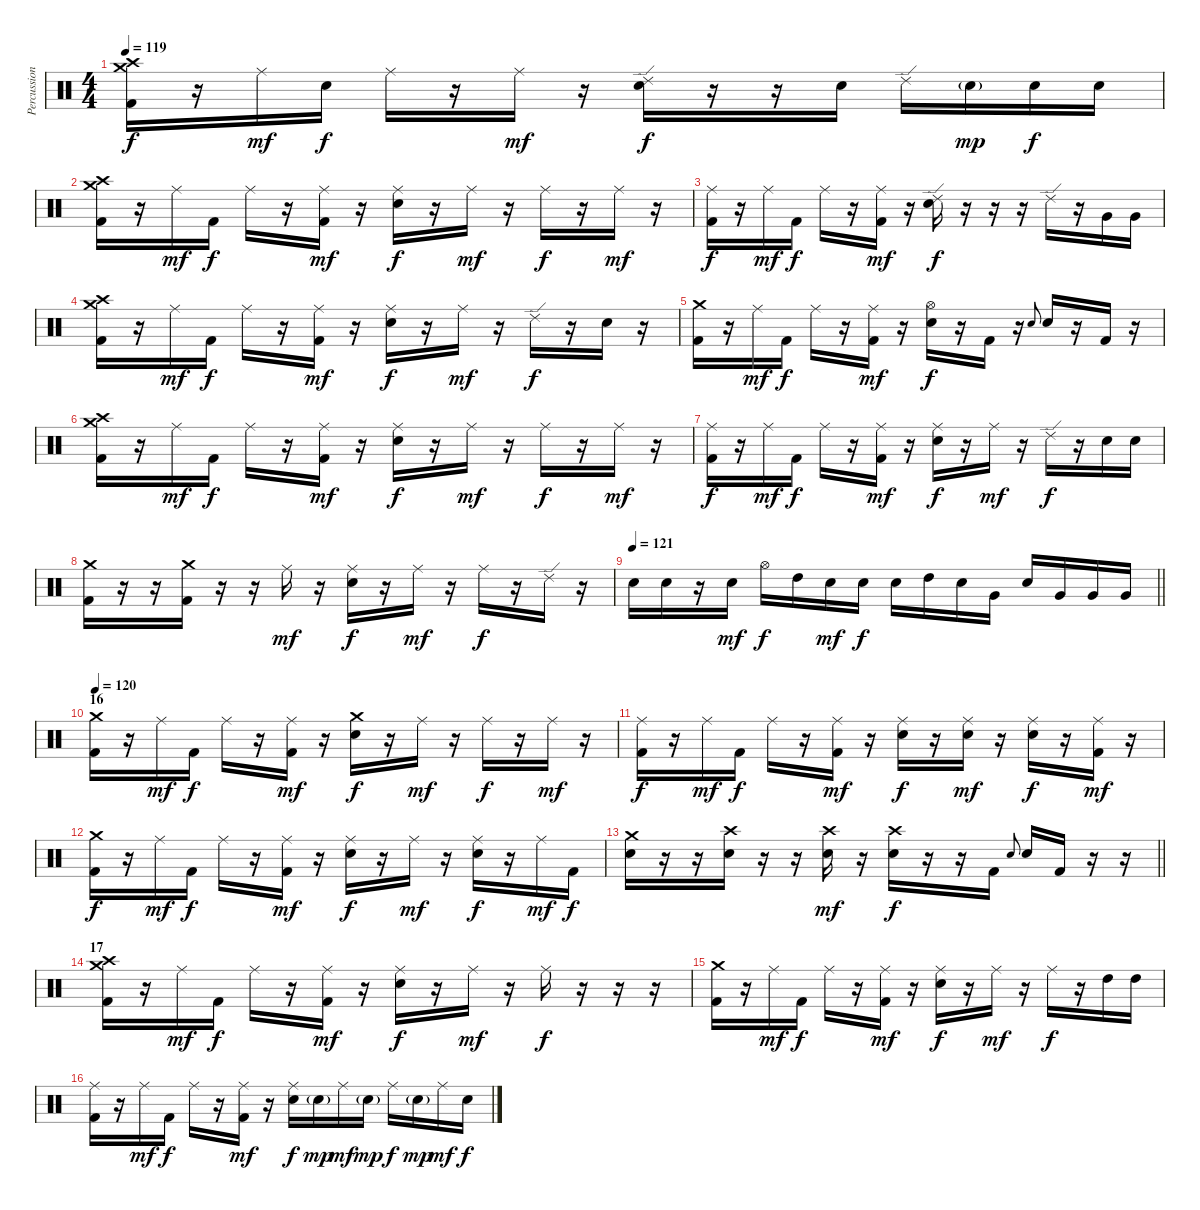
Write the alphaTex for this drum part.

\track ("Percussion" "Percussion") {instrument percussion}
\staff {score}
\articulation defaults
\ts (4 4)
\tempo 119
\clef neutral
\ks c
("Crash high (hit)" "Crash medium (hit)" "Kick (hit) 2").16{dy f} r.16 "Ride (middle)".16{dy mf} "Snare (hit) 2".16{dy f} "Ride (middle)".16 r.16 "Ride (middle)".16{dy mf} r.16 ("Ride (edge) 2" "Snare (hit) 2").16{dy f} r.16 r.16 "Snare (hit) 2".16 "Ride (edge) 2".16 "Snare (hit) 2"{g}.16{dy mp} "Snare (hit) 2".16{dy f} "Snare (hit) 2".16 |
("Crash high (hit)" "Crash medium (hit)" "Kick (hit) 2").16 r.16 "Ride (middle)".16{dy mf} "Kick (hit) 2".16{dy f} "Ride (middle)".16 r.16 ("Ride (middle)" "Kick (hit) 2").16{dy mf} r.16 ("Ride (middle)" "Snare (hit) 2").16{dy f} r.16 "Ride (middle)".16{dy mf} r.16 "Ride (middle)".16{dy f} r.16 "Ride (middle)".16{dy mf} r.16 |
("Ride (middle)" "Kick (hit) 2").16{dy f} r.16 "Ride (middle)".16{dy mf} "Kick (hit) 2".16{dy f} "Ride (middle)".16 r.16 ("Ride (middle)" "Kick (hit) 2").16{dy mf} r.16 ("Ride (edge) 2" "Snare (hit) 2").16{dy f} r.16 r.16 r.16 "Ride (edge) 2".16 r.16 "Very Low Tom (hit)".16 "Very Low Tom (hit)".16 |
("Crash high (hit)" "Crash medium (hit)" "Kick (hit) 2").16 r.16 "Ride (middle)".16{dy mf} "Kick (hit) 2".16{dy f} "Ride (middle)".16 r.16 ("Ride (middle)" "Kick (hit) 2").16{dy mf} r.16 ("Ride (middle)" "Snare (hit) 2").16{dy f} r.16 "Ride (middle)".16{dy mf} r.16 "Ride (edge) 2".16{dy f} r.16 "Snare (hit) 2".16 r.16 |
("Crash medium (hit)" "Kick (hit) 2").16 r.16 "Ride (middle)".16{dy mf} "Kick (hit) 2".16{dy f} "Ride (middle)".16 r.16 ("Ride (middle)" "Kick (hit) 2").16{dy mf} r.16 ("Hi-Hat (open)" "Snare (hit) 2").16{dy f} r.16 "Kick (hit) 2".16 r.16 "Snare (hit) 2".8{gr onbeat} "Snare (hit) 2".16 r.16 "Kick (hit) 2".16 r.16 |
("Crash high (hit)" "Crash medium (hit)" "Kick (hit) 2").16 r.16 "Ride (middle)".16{dy mf} "Kick (hit) 2".16{dy f} "Ride (middle)".16 r.16 ("Ride (middle)" "Kick (hit) 2").16{dy mf} r.16 ("Ride (middle)" "Snare (hit) 2").16{dy f} r.16 "Ride (middle)".16{dy mf} r.16 "Ride (middle)".16{dy f} r.16 "Ride (middle)".16{dy mf} r.16 |
("Ride (middle)" "Kick (hit) 2").16{dy f} r.16 "Ride (middle)".16{dy mf} "Kick (hit) 2".16{dy f} "Ride (middle)".16 r.16 ("Ride (middle)" "Kick (hit) 2").16{dy mf} r.16 ("Ride (middle)" "Snare (hit) 2").16{dy f} r.16 "Ride (middle)".16{dy mf} r.16 "Ride (edge) 2".16{dy f} r.16 "Snare (hit) 2".16 "Snare (hit) 2".16 |
("Crash medium (hit)" "Kick (hit) 2").16 r.16 r.16 ("Crash medium (hit)" "Kick (hit) 2").16 r.16 r.16 "Ride (middle)".16{dy mf} r.16 ("Ride (middle)" "Snare (hit) 2").16{dy f} r.16 "Ride (middle)".16{dy mf} r.16 "Ride (middle)".16{dy f} r.16 "Ride (edge) 2".16 r.16 |
\tempo 121
\barLineRight lightlight "Snare (hit) 2".16 "Snare (hit) 2".16
r.16 "Snare (hit) 2".16{dy mf} "Hi-Hat (open)".16{dy f} "High Tom (hit)".16 "Snare (hit) 2".16{dy mf} "Snare (hit) 2".16{dy f} "Snare (hit) 2".16 "High Tom (hit)".16 "Snare (hit) 2".16 "Very Low Tom (hit)".16 "Snare (hit) 2".16 "Very Low Tom (hit)".16 "Very Low Tom (hit)".16 "Very Low Tom (hit)".16 |
\section ("" "16")
\tempo 120
("Crash medium (hit)" "Kick (hit) 2").16 r.16 "Ride (middle)".16{dy mf} "Kick (hit) 2".16{dy f} "Ride (middle)".16 r.16 ("Ride (middle)" "Kick (hit) 2").16{dy mf} r.16 ("Crash medium (hit)" "Snare (hit) 2").16{dy f} r.16 "Ride (middle)".16{dy mf} r.16 "Ride (middle)".16{dy f} r.16 "Ride (middle)".16{dy mf} r.16 |
("Ride (middle)" "Kick (hit) 2").16{dy f} r.16 "Ride (middle)".16{dy mf} "Kick (hit) 2".16{dy f} "Ride (middle)".16 r.16 ("Ride (middle)" "Kick (hit) 2").16{dy mf} r.16 ("Ride (middle)" "Snare (hit) 2").16{dy f} r.16 ("Ride (middle)" "Snare (hit) 2").16{dy mf} r.16 ("Ride (middle)" "Snare (hit) 2").16{dy f} r.16 ("Ride (middle)" "Kick (hit) 2").16{dy mf} r.16 |
("Crash medium (hit)" "Kick (hit) 2").16{dy f} r.16 "Ride (middle)".16{dy mf} "Kick (hit) 2".16{dy f} "Ride (middle)".16 r.16 ("Ride (middle)" "Kick (hit) 2").16{dy mf} r.16 ("Ride (middle)" "Snare (hit) 2").16{dy f} r.16 "Ride (middle)".16{dy mf} r.16 ("Ride (middle)" "Snare (hit) 2").16{dy f} r.16 "Ride (middle)".16{dy mf} "Kick (hit) 2".16{dy f} |
\barLineRight lightlight
("Crash medium (hit)" "Snare (hit) 2").16 r.16 r.16 ("Crash high (hit)" "Snare (hit) 2").16 r.16 r.16 ("Crash high (hit)" "Snare (hit) 2").16{dy mf} r.16 ("Crash high (hit)" "Snare (hit) 2").16{dy f} r.16 r.16 "Kick (hit) 2".16 "Snare (hit) 2".8{gr onbeat} "Snare (hit) 2".16 "Kick (hit) 2".16 r.16 r.16 |
\section ("" "17")
("Crash high (hit)" "Crash medium (hit)" "Kick (hit) 2").16 r.16 "Ride (middle)".16{dy mf} "Kick (hit) 2".16{dy f} "Ride (middle)".16 r.16 ("Ride (middle)" "Kick (hit) 2").16{dy mf} r.16 ("Ride (middle)" "Snare (hit) 2").16{dy f} r.16 "Ride (middle)".16{dy mf} r.16 "Ride (middle)".16{dy f} r.16 r.16 r.16 |
("Crash medium (hit)" "Kick (hit) 2").16 r.16 "Ride (middle)".16{dy mf} "Kick (hit) 2".16{dy f} "Ride (middle)".16 r.16 ("Ride (middle)" "Kick (hit) 2").16{dy mf} r.16 ("Ride (middle)" "Snare (hit) 2").16{dy f} r.16 "Ride (middle)".16{dy mf} r.16 "Ride (middle)".16{dy f} r.16 "High Tom (hit)".16 "High Tom (hit)".16 |
("Ride (middle)" "Kick (hit) 2").16 r.16 "Ride (middle)".16{dy mf} "Kick (hit) 2".16{dy f} "Ride (middle)".16 r.16 ("Ride (middle)" "Kick (hit) 2").16{dy mf} r.16 ("Ride (middle)" "Snare (hit) 2").16{dy f} "Snare (hit) 2"{g}.16{dy mp} "Ride (middle)".16{dy mf} "Snare (hit) 2"{g}.16{dy mp} "Ride (middle)".16{dy f} "Snare (hit) 2"{g}.16{dy mp} "Ride (middle)".16{dy mf} "Snare (hit) 2".16{dy f}
